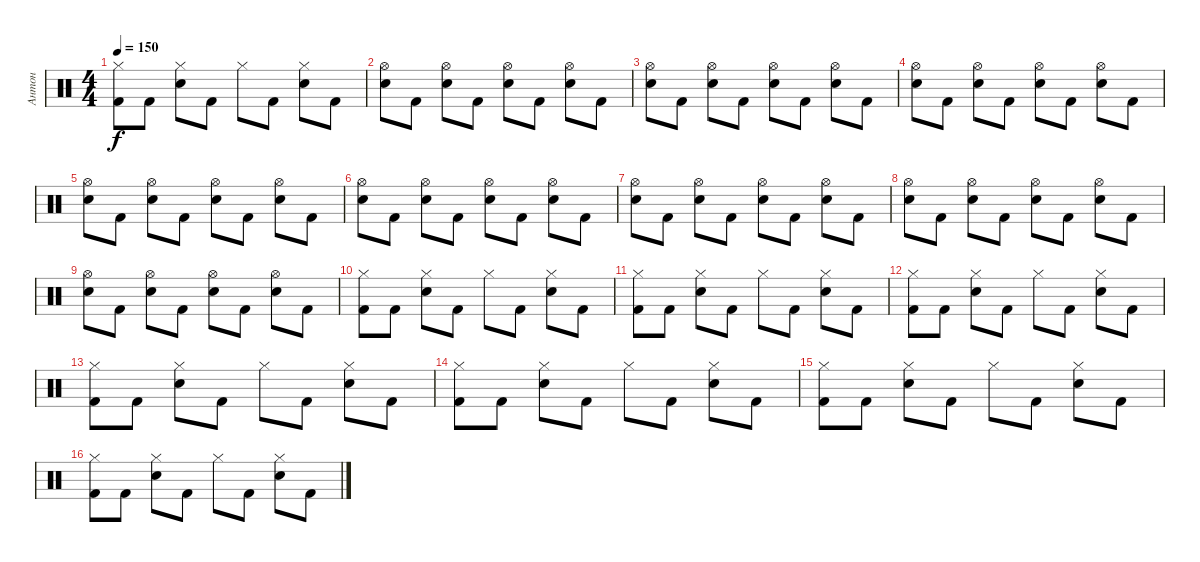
\track ("Антон" "Антон") {instrument percussion}
\staff {score}
\articulation defaults
\ts (4 4)
\tempo 150
\clef neutral
\ks c
("Hi-Hat (closed)" "Kick (hit) 2").8{dy f} "Kick (hit) 2".8 ("Hi-Hat (closed)" "Electric Snare (hit)").8 "Kick (hit) 2".8 "Hi-Hat (closed)".8 "Kick (hit) 2".8 ("Hi-Hat (closed)" "Electric Snare (hit)").8 "Kick (hit) 2".8 |
("Hi-Hat (open)" "Electric Snare (hit)").8 "Kick (hit) 2".8 ("Hi-Hat (open)" "Electric Snare (hit)").8 "Kick (hit) 2".8 ("Hi-Hat (open)" "Electric Snare (hit)").8 "Kick (hit) 2".8 ("Hi-Hat (open)" "Electric Snare (hit)").8 "Kick (hit) 2".8 |
("Hi-Hat (open)" "Electric Snare (hit)").8 "Kick (hit) 2".8 ("Hi-Hat (open)" "Electric Snare (hit)").8 "Kick (hit) 2".8 ("Hi-Hat (open)" "Electric Snare (hit)").8 "Kick (hit) 2".8 ("Hi-Hat (open)" "Electric Snare (hit)").8 "Kick (hit) 2".8 |
("Hi-Hat (open)" "Electric Snare (hit)").8 "Kick (hit) 2".8 ("Hi-Hat (open)" "Electric Snare (hit)").8 "Kick (hit) 2".8 ("Hi-Hat (open)" "Electric Snare (hit)").8 "Kick (hit) 2".8 ("Hi-Hat (open)" "Electric Snare (hit)").8 "Kick (hit) 2".8 |
("Hi-Hat (open)" "Electric Snare (hit)").8 "Kick (hit) 2".8 ("Hi-Hat (open)" "Electric Snare (hit)").8 "Kick (hit) 2".8 ("Hi-Hat (open)" "Electric Snare (hit)").8 "Kick (hit) 2".8 ("Hi-Hat (open)" "Electric Snare (hit)").8 "Kick (hit) 2".8 |
("Hi-Hat (open)" "Electric Snare (hit)").8 "Kick (hit) 2".8 ("Hi-Hat (open)" "Electric Snare (hit)").8 "Kick (hit) 2".8 ("Hi-Hat (open)" "Electric Snare (hit)").8 "Kick (hit) 2".8 ("Hi-Hat (open)" "Electric Snare (hit)").8 "Kick (hit) 2".8 |
("Hi-Hat (open)" "Electric Snare (hit)").8 "Kick (hit) 2".8 ("Hi-Hat (open)" "Electric Snare (hit)").8 "Kick (hit) 2".8 ("Hi-Hat (open)" "Electric Snare (hit)").8 "Kick (hit) 2".8 ("Hi-Hat (open)" "Electric Snare (hit)").8 "Kick (hit) 2".8 |
("Hi-Hat (open)" "Electric Snare (hit)").8 "Kick (hit) 2".8 ("Hi-Hat (open)" "Electric Snare (hit)").8 "Kick (hit) 2".8 ("Hi-Hat (open)" "Electric Snare (hit)").8 "Kick (hit) 2".8 ("Hi-Hat (open)" "Electric Snare (hit)").8 "Kick (hit) 2".8 |
("Hi-Hat (open)" "Electric Snare (hit)").8 "Kick (hit) 2".8 ("Hi-Hat (open)" "Electric Snare (hit)").8 "Kick (hit) 2".8 ("Hi-Hat (open)" "Electric Snare (hit)").8 "Kick (hit) 2".8 ("Hi-Hat (open)" "Electric Snare (hit)").8 "Kick (hit) 2".8 |
("Hi-Hat (closed)" "Kick (hit) 2").8 "Kick (hit) 2".8 ("Hi-Hat (closed)" "Electric Snare (hit)").8 "Kick (hit) 2".8 "Hi-Hat (closed)".8 "Kick (hit) 2".8 ("Hi-Hat (closed)" "Electric Snare (hit)").8 "Kick (hit) 2".8 |
("Hi-Hat (closed)" "Kick (hit) 2").8 "Kick (hit) 2".8 ("Hi-Hat (closed)" "Electric Snare (hit)").8 "Kick (hit) 2".8 "Hi-Hat (closed)".8 "Kick (hit) 2".8 ("Hi-Hat (closed)" "Electric Snare (hit)").8 "Kick (hit) 2".8 |
("Hi-Hat (closed)" "Kick (hit) 2").8 "Kick (hit) 2".8 ("Hi-Hat (closed)" "Electric Snare (hit)").8 "Kick (hit) 2".8 "Hi-Hat (closed)".8 "Kick (hit) 2".8 ("Hi-Hat (closed)" "Electric Snare (hit)").8 "Kick (hit) 2".8 |
("Hi-Hat (closed)" "Kick (hit) 2").8 "Kick (hit) 2".8 ("Hi-Hat (closed)" "Electric Snare (hit)").8 "Kick (hit) 2".8 "Hi-Hat (closed)".8 "Kick (hit) 2".8 ("Hi-Hat (closed)" "Electric Snare (hit)").8 "Kick (hit) 2".8 |
("Hi-Hat (closed)" "Kick (hit) 2").8 "Kick (hit) 2".8 ("Hi-Hat (closed)" "Electric Snare (hit)").8 "Kick (hit) 2".8 "Hi-Hat (closed)".8 "Kick (hit) 2".8 ("Hi-Hat (closed)" "Electric Snare (hit)").8 "Kick (hit) 2".8 |
("Hi-Hat (closed)" "Kick (hit) 2").8 "Kick (hit) 2".8 ("Hi-Hat (closed)" "Electric Snare (hit)").8 "Kick (hit) 2".8 "Hi-Hat (closed)".8 "Kick (hit) 2".8 ("Hi-Hat (closed)" "Electric Snare (hit)").8 "Kick (hit) 2".8 |
("Hi-Hat (closed)" "Kick (hit) 2").8 "Kick (hit) 2".8 ("Hi-Hat (closed)" "Electric Snare (hit)").8 "Kick (hit) 2".8 "Hi-Hat (closed)".8 "Kick (hit) 2".8 ("Hi-Hat (closed)" "Electric Snare (hit)").8 "Kick (hit) 2".8
